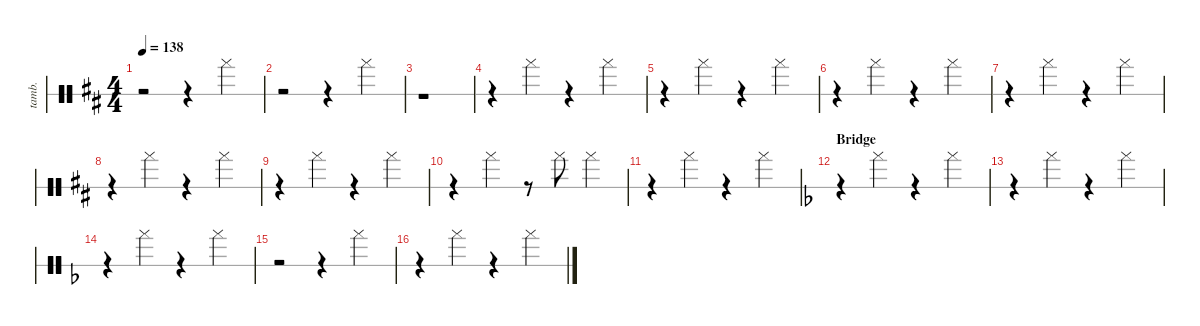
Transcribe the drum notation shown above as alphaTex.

\hideDynamics
\bracketExtendMode groupsimilarinstruments
\otherSystemsTrackNameOrientation horizontal
\track ("Tambourine" "tamb.") {instrument percussion}
\staff {score 1}
\articulation defaults
\ts (4 4)
\tempo 138
\clef neutral
\ks d
r.2{dy mf} r.4 "Tambourine (hand)"{acc forcenatural}.4 |
r.2 r.4 "Tambourine (hand)"{acc forcenatural}.4 |
r.1 |
r.4 "Tambourine (hand)"{acc forcenatural}.4 r.4 "Tambourine (hand)"{acc forcenatural}.4 |
r.4 "Tambourine (hand)"{acc forcenatural}.4 r.4 "Tambourine (hand)"{acc forcenatural}.4 |
r.4 "Tambourine (hand)"{acc forcenatural}.4 r.4 "Tambourine (hand)"{acc forcenatural}.4 |
r.4 "Tambourine (hand)"{acc forcenatural}.4 r.4 "Tambourine (hand)"{acc forcenatural}.4 |
r.4 "Tambourine (hand)"{acc forcenatural}.4 r.4 "Tambourine (hand)"{acc forcenatural}.4 |
r.4 "Tambourine (hand)"{acc forcenatural}.4 r.4 "Tambourine (hand)"{acc forcenatural}.4 |
r.4 "Tambourine (hand)"{acc forcenatural}.4 r.8 "Tambourine (hand)"{acc forcenatural}.8 "Tambourine (hand)"{acc forcenatural}.4 |
r.4 "Tambourine (hand)"{acc forcenatural}.4 r.4 "Tambourine (hand)"{acc forcenatural}.4 |
\section ("" "Bridge")
\ks f
r.4 "Tambourine (hand)"{acc forcenatural}.4 r.4 "Tambourine (hand)"{acc forcenatural}.4 |
r.4 "Tambourine (hand)"{acc forcenatural}.4 r.4 "Tambourine (hand)"{acc forcenatural}.4 |
r.4 "Tambourine (hand)"{acc forcenatural}.4 r.4 "Tambourine (hand)"{acc forcenatural}.4 |
r.2 r.4 "Tambourine (hand)"{acc forcenatural}.4 |
r.4 "Tambourine (hand)"{acc forcenatural}.4 r.4 "Tambourine (hand)"{acc forcenatural}.4
